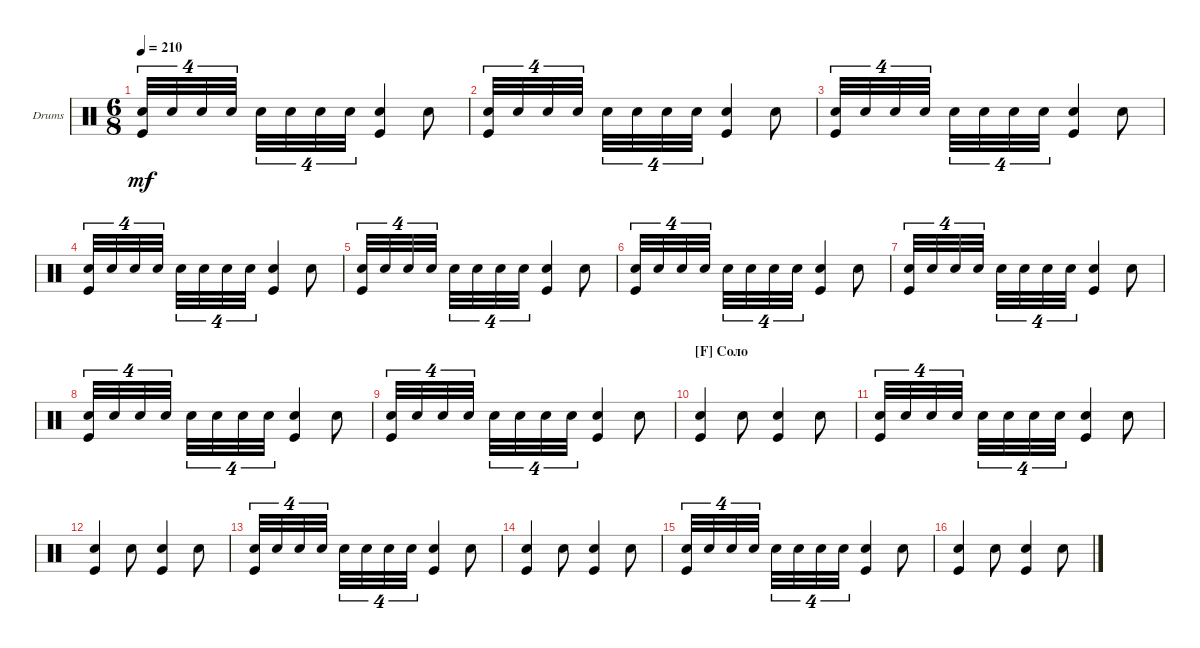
\defaultSystemsLayout 4
\bracketExtendMode nobrackets
\firstSystemTrackNameOrientation horizontal
\otherSystemsTrackNameOrientation horizontal
\track ("Drumkit" "Drums") {instrument percussion}
\staff {score}
\articulation defaults
\ts (6 8)
\tempo 210
\clef neutral
\scale
0.333333
\ks c
("Kick (hit)" "Snare (hit) 2").32{tu (4 6) dy mf} "Snare (hit) 2".32{tu (4 6)} "Snare (hit) 2".32{tu (4 6)} "Snare (hit) 2".32{tu (4 6)} "Snare (hit) 2".32{tu (4 6)} "Snare (hit) 2".32{tu (4 6)} "Snare (hit) 2".32{tu (4 6)} "Snare (hit) 2".32{tu (4 6)} ("Kick (hit)" "Snare (hit) 2").4 "Snare (hit) 2".8 |
\scale
0.333333 ("Kick (hit)" "Snare (hit) 2").32{tu (4 6)} "Snare (hit) 2".32{tu (4 6)} "Snare (hit) 2".32{tu (4 6)} "Snare (hit) 2".32{tu (4 6)} "Snare (hit) 2".32{tu (4 6)} "Snare (hit) 2".32{tu (4 6)} "Snare (hit) 2".32{tu (4 6)} "Snare (hit) 2".32{tu (4 6)} ("Kick (hit)" "Snare (hit) 2").4 "Snare (hit) 2".8 |
\scale
0.333333 ("Kick (hit)" "Snare (hit) 2").32{tu (4 6)} "Snare (hit) 2".32{tu (4 6)} "Snare (hit) 2".32{tu (4 6)} "Snare (hit) 2".32{tu (4 6)} "Snare (hit) 2".32{tu (4 6)} "Snare (hit) 2".32{tu (4 6)} "Snare (hit) 2".32{tu (4 6)} "Snare (hit) 2".32{tu (4 6)} ("Kick (hit)" "Snare (hit) 2").4 "Snare (hit) 2".8 |
\scale
0.333333 ("Kick (hit)" "Snare (hit) 2").32{tu (4 6)} "Snare (hit) 2".32{tu (4 6)} "Snare (hit) 2".32{tu (4 6)} "Snare (hit) 2".32{tu (4 6)} "Snare (hit) 2".32{tu (4 6)} "Snare (hit) 2".32{tu (4 6)} "Snare (hit) 2".32{tu (4 6)} "Snare (hit) 2".32{tu (4 6)} ("Kick (hit)" "Snare (hit) 2").4 "Snare (hit) 2".8 |
\scale
0.333333 ("Kick (hit)" "Snare (hit) 2").32{tu (4 6)} "Snare (hit) 2".32{tu (4 6)} "Snare (hit) 2".32{tu (4 6)} "Snare (hit) 2".32{tu (4 6)} "Snare (hit) 2".32{tu (4 6)} "Snare (hit) 2".32{tu (4 6)} "Snare (hit) 2".32{tu (4 6)} "Snare (hit) 2".32{tu (4 6)} ("Kick (hit)" "Snare (hit) 2").4 "Snare (hit) 2".8 |
\scale
0.333333 ("Kick (hit)" "Snare (hit) 2").32{tu (4 6)} "Snare (hit) 2".32{tu (4 6)} "Snare (hit) 2".32{tu (4 6)} "Snare (hit) 2".32{tu (4 6)} "Snare (hit) 2".32{tu (4 6)} "Snare (hit) 2".32{tu (4 6)} "Snare (hit) 2".32{tu (4 6)} "Snare (hit) 2".32{tu (4 6)} ("Kick (hit)" "Snare (hit) 2").4 "Snare (hit) 2".8 |
\scale
0.333333 ("Kick (hit)" "Snare (hit) 2").32{tu (4 6)} "Snare (hit) 2".32{tu (4 6)} "Snare (hit) 2".32{tu (4 6)} "Snare (hit) 2".32{tu (4 6)} "Snare (hit) 2".32{tu (4 6)} "Snare (hit) 2".32{tu (4 6)} "Snare (hit) 2".32{tu (4 6)} "Snare (hit) 2".32{tu (4 6)} ("Kick (hit)" "Snare (hit) 2").4 "Snare (hit) 2".8 |
\scale
0.333333 ("Kick (hit)" "Snare (hit) 2").32{tu (4 6)} "Snare (hit) 2".32{tu (4 6)} "Snare (hit) 2".32{tu (4 6)} "Snare (hit) 2".32{tu (4 6)} "Snare (hit) 2".32{tu (4 6)} "Snare (hit) 2".32{tu (4 6)} "Snare (hit) 2".32{tu (4 6)} "Snare (hit) 2".32{tu (4 6)} ("Kick (hit)" "Snare (hit) 2").4 "Snare (hit) 2".8 |
\scale
0.333333 ("Kick (hit)" "Snare (hit) 2").32{tu (4 6)} "Snare (hit) 2".32{tu (4 6)} "Snare (hit) 2".32{tu (4 6)} "Snare (hit) 2".32{tu (4 6)} "Snare (hit) 2".32{tu (4 6)} "Snare (hit) 2".32{tu (4 6)} "Snare (hit) 2".32{tu (4 6)} "Snare (hit) 2".32{tu (4 6)} ("Kick (hit)" "Snare (hit) 2").4 "Snare (hit) 2".8 |
\section ("F" "Соло")
\scale
0.333333 ("Kick (hit)" "Snare (hit) 2").4 "Snare (hit) 2".8 ("Kick (hit)" "Snare (hit) 2").4 "Snare (hit) 2".8 |
\scale
0.333333 ("Kick (hit)" "Snare (hit) 2").32{tu (4 6)} "Snare (hit) 2".32{tu (4 6)} "Snare (hit) 2".32{tu (4 6)} "Snare (hit) 2".32{tu (4 6)} "Snare (hit) 2".32{tu (4 6)} "Snare (hit) 2".32{tu (4 6)} "Snare (hit) 2".32{tu (4 6)} "Snare (hit) 2".32{tu (4 6)} ("Kick (hit)" "Snare (hit) 2").4 "Snare (hit) 2".8 |
\scale
0.333333 ("Kick (hit)" "Snare (hit) 2").4 "Snare (hit) 2".8 ("Kick (hit)" "Snare (hit) 2").4 "Snare (hit) 2".8 |
\scale
0.333333 ("Kick (hit)" "Snare (hit) 2").32{tu (4 6)} "Snare (hit) 2".32{tu (4 6)} "Snare (hit) 2".32{tu (4 6)} "Snare (hit) 2".32{tu (4 6)} "Snare (hit) 2".32{tu (4 6)} "Snare (hit) 2".32{tu (4 6)} "Snare (hit) 2".32{tu (4 6)} "Snare (hit) 2".32{tu (4 6)} ("Kick (hit)" "Snare (hit) 2").4 "Snare (hit) 2".8 |
\scale
0.333333 ("Kick (hit)" "Snare (hit) 2").4 "Snare (hit) 2".8 ("Kick (hit)" "Snare (hit) 2").4 "Snare (hit) 2".8 |
\scale
0.333333 ("Kick (hit)" "Snare (hit) 2").32{tu (4 6)} "Snare (hit) 2".32{tu (4 6)} "Snare (hit) 2".32{tu (4 6)} "Snare (hit) 2".32{tu (4 6)} "Snare (hit) 2".32{tu (4 6)} "Snare (hit) 2".32{tu (4 6)} "Snare (hit) 2".32{tu (4 6)} "Snare (hit) 2".32{tu (4 6)} ("Kick (hit)" "Snare (hit) 2").4 "Snare (hit) 2".8 |
\scale
0.333333 ("Kick (hit)" "Snare (hit) 2").4 "Snare (hit) 2".8 ("Kick (hit)" "Snare (hit) 2").4 "Snare (hit) 2".8
